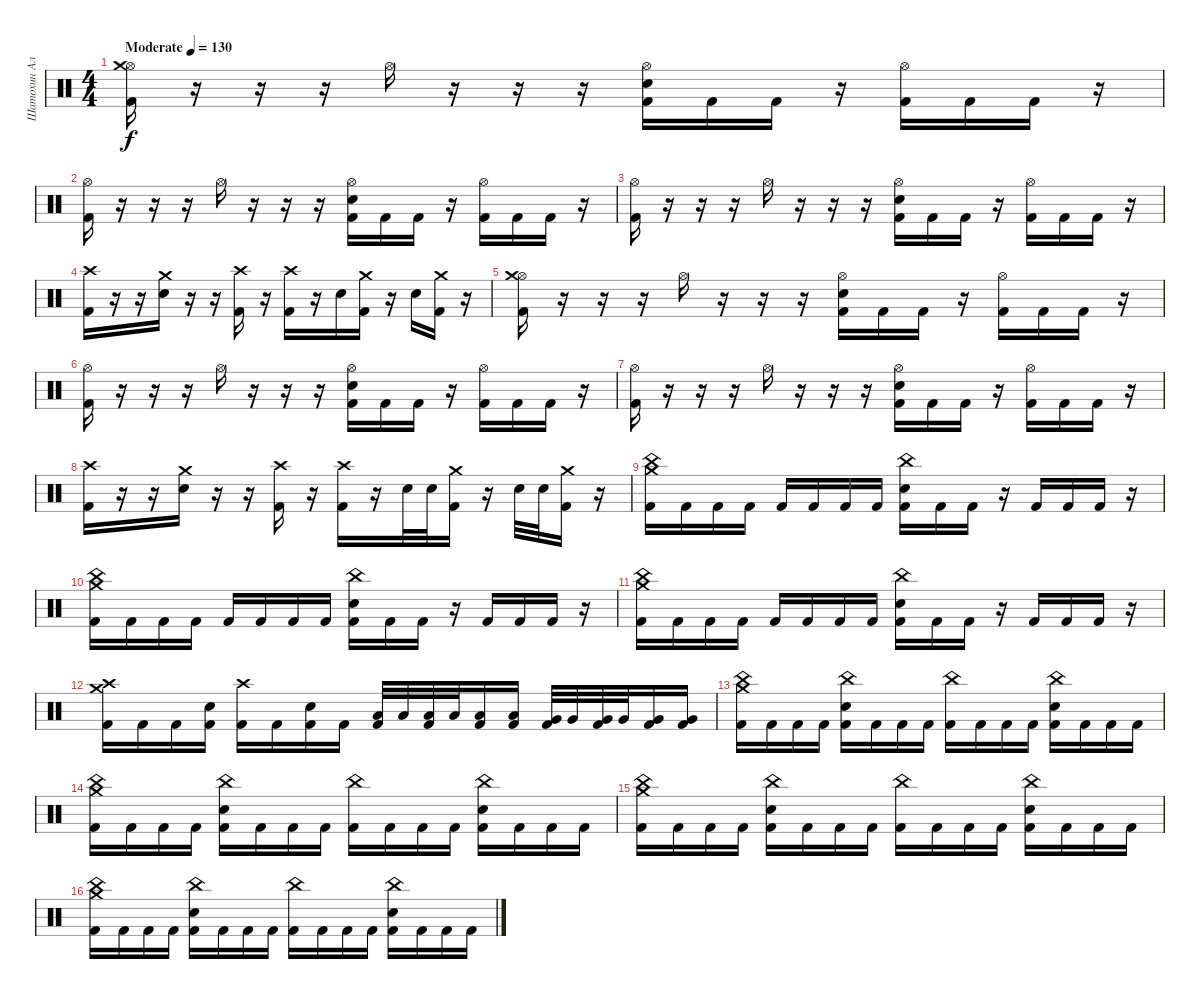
\track ("Шатохин Алексей" "Шатохин Ал") {instrument percussion}
\staff {score}
\articulation defaults
\ts (4 4)
\tempo (130 "Moderate")
\clef neutral
\ks c
("Hi-Hat (open)" "Crash medium (hit)" "Kick (hit) 2").16{dy f} r.16 r.16 r.16 "Hi-Hat (open)".16 r.16 r.16 r.16 ("Hi-Hat (open)" "Electric Snare (hit)" "Kick (hit) 2").16 "Kick (hit) 2".16 "Kick (hit) 2".16 r.16 ("Hi-Hat (open)" "Kick (hit) 2").16 "Kick (hit) 2".16 "Kick (hit) 2".16 r.16 |
("Hi-Hat (open)" "Kick (hit) 2").16 r.16 r.16 r.16 "Hi-Hat (open)".16 r.16 r.16 r.16 ("Hi-Hat (open)" "Electric Snare (hit)" "Kick (hit) 2").16 "Kick (hit) 2".16 "Kick (hit) 2".16 r.16 ("Hi-Hat (open)" "Kick (hit) 2").16 "Kick (hit) 2".16 "Kick (hit) 2".16 r.16 |
("Hi-Hat (open)" "Kick (hit) 2").16 r.16 r.16 r.16 "Hi-Hat (open)".16 r.16 r.16 r.16 ("Hi-Hat (open)" "Electric Snare (hit)" "Kick (hit) 2").16 "Kick (hit) 2".16 "Kick (hit) 2".16 r.16 ("Hi-Hat (open)" "Kick (hit) 2").16 "Kick (hit) 2".16 "Kick (hit) 2".16 r.16 |
("Crash high (hit)" "Kick (hit) 2").16 r.16 r.16 ("Crash medium (hit)" "Electric Snare (hit)").16 r.16 r.16 ("Crash high (hit)" "Kick (hit) 2").16 r.16 ("Crash high (hit)" "Kick (hit) 2").16 r.16 "Electric Snare (hit)".16 ("Crash medium (hit)" "Kick (hit) 2").16 r.16 "Electric Snare (hit)".16 ("Crash medium (hit)" "Kick (hit) 2").16 r.16 |
("Hi-Hat (open)" "Crash medium (hit)" "Kick (hit) 2").16 r.16 r.16 r.16 "Hi-Hat (open)".16 r.16 r.16 r.16 ("Hi-Hat (open)" "Electric Snare (hit)" "Kick (hit) 2").16 "Kick (hit) 2".16 "Kick (hit) 2".16 r.16 ("Hi-Hat (open)" "Kick (hit) 2").16 "Kick (hit) 2".16 "Kick (hit) 2".16 r.16 |
("Hi-Hat (open)" "Kick (hit) 2").16 r.16 r.16 r.16 "Hi-Hat (open)".16 r.16 r.16 r.16 ("Hi-Hat (open)" "Electric Snare (hit)" "Kick (hit) 2").16 "Kick (hit) 2".16 "Kick (hit) 2".16 r.16 ("Hi-Hat (open)" "Kick (hit) 2").16 "Kick (hit) 2".16 "Kick (hit) 2".16 r.16 |
("Hi-Hat (open)" "Kick (hit) 2").16 r.16 r.16 r.16 "Hi-Hat (open)".16 r.16 r.16 r.16 ("Hi-Hat (open)" "Electric Snare (hit)" "Kick (hit) 2").16 "Kick (hit) 2".16 "Kick (hit) 2".16 r.16 ("Hi-Hat (open)" "Kick (hit) 2").16 "Kick (hit) 2".16 "Kick (hit) 2".16 r.16 |
("Crash high (hit)" "Kick (hit) 2").16 r.16 r.16 ("Crash medium (hit)" "Electric Snare (hit)").16 r.16 r.16 ("Crash high (hit)" "Kick (hit) 2").16 r.16 ("Crash high (hit)" "Kick (hit) 2").16 r.16 "Electric Snare (hit)".32 "Electric Snare (hit)".32 ("Crash medium (hit)" "Kick (hit) 2").16 r.16 "Electric Snare (hit)".32 "Electric Snare (hit)".32 ("Crash medium (hit)" "Kick (hit) 2").16 r.16 |
("China (hit)" "Crash medium (hit)" "Kick (hit) 2").16 "Kick (hit) 2".16 "Kick (hit) 2".16 "Kick (hit) 2".16 "Kick (hit) 2".16 "Kick (hit) 2".16 "Kick (hit) 2".16 "Kick (hit) 2".16 ("China (hit)" "Electric Snare (hit)" "Kick (hit) 2").16 "Kick (hit) 2".16 "Kick (hit) 2".16 r.16 "Kick (hit) 2".16 "Kick (hit) 2".16 "Kick (hit) 2".16 r.16 |
("China (hit)" "Crash medium (hit)" "Kick (hit) 2").16 "Kick (hit) 2".16 "Kick (hit) 2".16 "Kick (hit) 2".16 "Kick (hit) 2".16 "Kick (hit) 2".16 "Kick (hit) 2".16 "Kick (hit) 2".16 ("China (hit)" "Electric Snare (hit)" "Kick (hit) 2").16 "Kick (hit) 2".16 "Kick (hit) 2".16 r.16 "Kick (hit) 2".16 "Kick (hit) 2".16 "Kick (hit) 2".16 r.16 |
("China (hit)" "Crash medium (hit)" "Kick (hit) 2").16 "Kick (hit) 2".16 "Kick (hit) 2".16 "Kick (hit) 2".16 "Kick (hit) 2".16 "Kick (hit) 2".16 "Kick (hit) 2".16 "Kick (hit) 2".16 ("China (hit)" "Electric Snare (hit)" "Kick (hit) 2").16 "Kick (hit) 2".16 "Kick (hit) 2".16 r.16 "Kick (hit) 2".16 "Kick (hit) 2".16 "Kick (hit) 2".16 r.16 |
("Crash medium (hit)" "Crash high (hit)" "Kick (hit) 2").16 "Kick (hit) 2".16 "Kick (hit) 2".16 ("Electric Snare (hit)" "Kick (hit) 2").16 ("Crash high (hit)" "Kick (hit) 2").16 "Kick (hit) 2".16 ("Electric Snare (hit)" "Kick (hit) 2").16 "Kick (hit) 2".16 ("Low Tom (hit)" "Kick (hit) 2").32 "Low Tom (hit)".32 ("Low Tom (hit)" "Kick (hit) 2").32 "Low Tom (hit)".32 ("Low Tom (hit)" "Kick (hit) 2").16 ("Low Tom (hit)" "Kick (hit) 2").16 ("Very Low Tom (hit)" "Kick (hit) 2").32 "Very Low Tom (hit)".32 ("Very Low Tom (hit)" "Kick (hit) 2").32 "Very Low Tom (hit)".32 ("Very Low Tom (hit)" "Kick (hit) 2").16 ("Very Low Tom (hit)" "Kick (hit) 2").16 |
("China (hit)" "Crash medium (hit)" "Kick (hit) 2").16 "Kick (hit) 2".16 "Kick (hit) 2".16 "Kick (hit) 2".16 ("China (hit)" "Electric Snare (hit)" "Kick (hit) 2").16 "Kick (hit) 2".16 "Kick (hit) 2".16 "Kick (hit) 2".16 ("China (hit)" "Kick (hit) 2").16 "Kick (hit) 2".16 "Kick (hit) 2".16 "Kick (hit) 2".16 ("China (hit)" "Electric Snare (hit)" "Kick (hit) 2").16 "Kick (hit) 2".16 "Kick (hit) 2".16 "Kick (hit) 2".16 |
("China (hit)" "Crash medium (hit)" "Kick (hit) 2").16 "Kick (hit) 2".16 "Kick (hit) 2".16 "Kick (hit) 2".16 ("China (hit)" "Electric Snare (hit)" "Kick (hit) 2").16 "Kick (hit) 2".16 "Kick (hit) 2".16 "Kick (hit) 2".16 ("China (hit)" "Kick (hit) 2").16 "Kick (hit) 2".16 "Kick (hit) 2".16 "Kick (hit) 2".16 ("China (hit)" "Electric Snare (hit)" "Kick (hit) 2").16 "Kick (hit) 2".16 "Kick (hit) 2".16 "Kick (hit) 2".16 |
("China (hit)" "Crash medium (hit)" "Kick (hit) 2").16 "Kick (hit) 2".16 "Kick (hit) 2".16 "Kick (hit) 2".16 ("China (hit)" "Electric Snare (hit)" "Kick (hit) 2").16 "Kick (hit) 2".16 "Kick (hit) 2".16 "Kick (hit) 2".16 ("China (hit)" "Kick (hit) 2").16 "Kick (hit) 2".16 "Kick (hit) 2".16 "Kick (hit) 2".16 ("China (hit)" "Electric Snare (hit)" "Kick (hit) 2").16 "Kick (hit) 2".16 "Kick (hit) 2".16 "Kick (hit) 2".16 |
("China (hit)" "Crash medium (hit)" "Kick (hit) 2").16 "Kick (hit) 2".16 "Kick (hit) 2".16 "Kick (hit) 2".16 ("China (hit)" "Electric Snare (hit)" "Kick (hit) 2").16 "Kick (hit) 2".16 "Kick (hit) 2".16 "Kick (hit) 2".16 ("China (hit)" "Kick (hit) 2").16 "Kick (hit) 2".16 "Kick (hit) 2".16 "Kick (hit) 2".16 ("China (hit)" "Electric Snare (hit)" "Kick (hit) 2").16 "Kick (hit) 2".16 "Kick (hit) 2".16 "Kick (hit) 2".16
